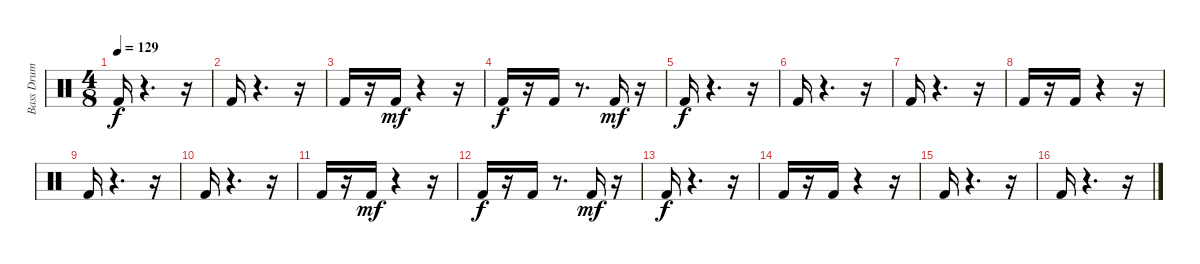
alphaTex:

\track ("Bass Drum" "Bass Drum") {instrument percussion}
\staff {score}
\articulation defaults
\ts (4 8)
\tempo 129
\clef neutral
\ks c "Kick (hit) 2".16{dy f}
r.4{d} r.16 |
"Kick (hit) 2".16 r.4{d} r.16 |
"Kick (hit) 2".16 r.16 "Kick (hit) 2".16{dy mf} r.4 r.16 |
"Kick (hit) 2".16{dy f} r.16 "Kick (hit) 2".16 r.8{d} "Kick (hit) 2".16{dy mf} r.16 |
"Kick (hit) 2".16{dy f} r.4{d} r.16 |
"Kick (hit) 2".16 r.4{d} r.16 |
"Kick (hit) 2".16 r.4{d} r.16 |
"Kick (hit) 2".16 r.16 "Kick (hit) 2".16 r.4 r.16 |
"Kick (hit) 2".16 r.4{d} r.16 |
"Kick (hit) 2".16 r.4{d} r.16 |
"Kick (hit) 2".16 r.16 "Kick (hit) 2".16{dy mf} r.4 r.16 |
"Kick (hit) 2".16{dy f} r.16 "Kick (hit) 2".16 r.8{d} "Kick (hit) 2".16{dy mf} r.16 |
"Kick (hit) 2".16{dy f} r.4{d} r.16 |
"Kick (hit) 2".16 r.16 "Kick (hit) 2".16 r.4 r.16 |
"Kick (hit) 2".16 r.4{d} r.16 |
"Kick (hit) 2".16 r.4{d} r.16
